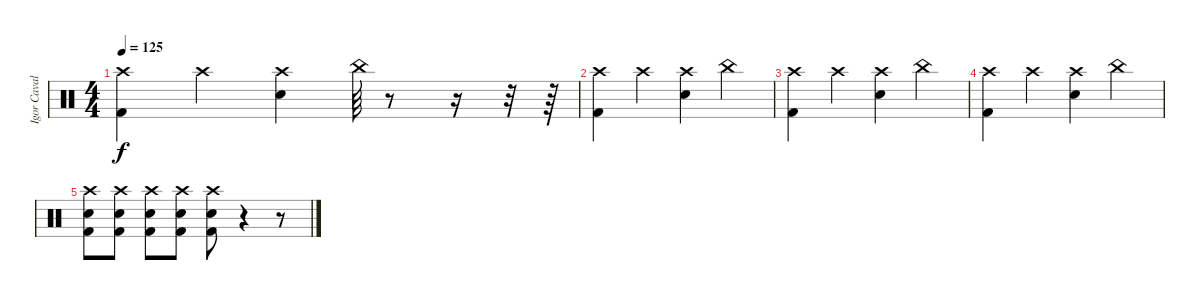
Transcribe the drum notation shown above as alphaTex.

\track ("Igor Cavalera" "Igor Caval") {instrument percussion}
\staff {score}
\articulation defaults
\ts (4 4)
\tempo 125
\clef neutral
\ks c
("Crash high (hit)" "Kick (hit) 2").4{dy f} "Crash high (hit)".4 ("Crash high (hit)" "Electric Snare (hit)").4 "China (hit)".64 r.8 r.16 r.32 r.64 |
("Crash high (hit)" "Kick (hit) 2").4 "Crash high (hit)".4 ("Crash high (hit)" "Electric Snare (hit)").4 "China (hit)".4 |
("Crash high (hit)" "Kick (hit) 2").4 "Crash high (hit)".4 ("Crash high (hit)" "Electric Snare (hit)").4 "China (hit)".4 |
("Crash high (hit)" "Kick (hit) 2").4 "Crash high (hit)".4 ("Crash high (hit)" "Electric Snare (hit)").4 "China (hit)".4 |
("Crash high (hit)" "Electric Snare (hit)" "Kick (hit) 2").8 ("Crash high (hit)" "Electric Snare (hit)" "Kick (hit) 2").8 ("Crash high (hit)" "Electric Snare (hit)" "Kick (hit) 2").8 ("Crash high (hit)" "Electric Snare (hit)" "Kick (hit) 2").8 ("Crash high (hit)" "Electric Snare (hit)" "Kick (hit) 2").8 r.4 r.8
